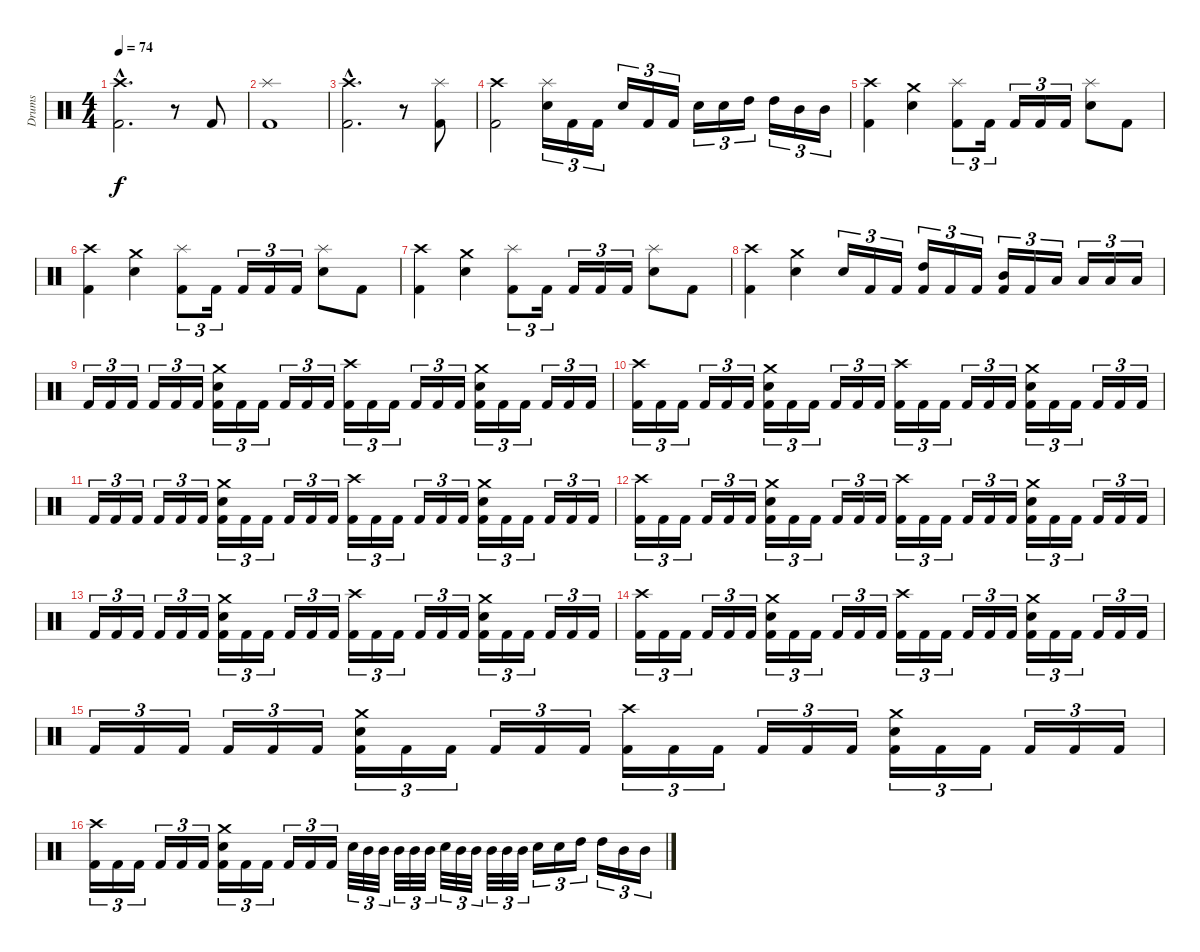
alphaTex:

\track ("Drums" "Drums") {instrument percussion}
\staff {score}
\articulation defaults
\ts (4 4)
\tempo 74
\clef neutral
\ks c
("Crash high (hit)"{hac} "Kick (hit) 2"{hac}).2{d dy f} r.8 "Kick (hit) 2".8 |
("Splash (hit)" "Kick (hit) 2").1 |
("Crash high (hit)"{hac} "Kick (hit) 2"{hac}).2{d} r.8 ("Splash (hit)" "Kick (hit) 2").8 |
("Crash high (hit)" "Kick (hit) 2").2 ("Splash (hit)" "Snare (hit) 2").16{tu (3 2)} "Kick (hit) 2".16{tu (3 2)} "Kick (hit) 2".16{tu (3 2)} "Snare (hit) 2".16{tu (3 2)} "Kick (hit) 2".16{tu (3 2)} "Kick (hit) 2".16{tu (3 2)} "Snare (hit) 2".16{tu (3 2)} "Snare (hit) 2".16{tu (3 2)} "High Tom (hit)".16{tu (3 2)} "High Tom (hit)".16{tu (3 2)} "Mid Tom (hit)".16{tu (3 2)} "Mid Tom (hit)".16{tu (3 2)} |
("Crash high (hit)" "Kick (hit) 2").4 ("Crash medium (hit)" "Snare (hit) 2").4 ("Splash (hit)" "Kick (hit) 2").8{tu (3 2)} "Kick (hit) 2".16{tu (3 2)} "Kick (hit) 2".16{tu (3 2)} "Kick (hit) 2".16{tu (3 2)} "Kick (hit) 2".16{tu (3 2)} ("Splash (hit)" "Snare (hit) 2").8 "Kick (hit) 2".8 |
("Crash high (hit)" "Kick (hit) 2").4 ("Crash medium (hit)" "Snare (hit) 2").4 ("Splash (hit)" "Kick (hit) 2").8{tu (3 2)} "Kick (hit) 2".16{tu (3 2)} "Kick (hit) 2".16{tu (3 2)} "Kick (hit) 2".16{tu (3 2)} "Kick (hit) 2".16{tu (3 2)} ("Splash (hit)" "Snare (hit) 2").8 "Kick (hit) 2".8 |
("Crash high (hit)" "Kick (hit) 2").4 ("Crash medium (hit)" "Snare (hit) 2").4 ("Splash (hit)" "Kick (hit) 2").8{tu (3 2)} "Kick (hit) 2".16{tu (3 2)} "Kick (hit) 2".16{tu (3 2)} "Kick (hit) 2".16{tu (3 2)} "Kick (hit) 2".16{tu (3 2)} ("Splash (hit)" "Snare (hit) 2").8 "Kick (hit) 2".8 |
("Crash high (hit)" "Kick (hit) 2").4 ("Crash medium (hit)" "Snare (hit) 2").4 "Snare (hit) 2".16{tu (3 2)} "Kick (hit) 2".16{tu (3 2)} "Kick (hit) 2".16{tu (3 2)} ("High Tom (hit)" "Kick (hit) 2").16{tu (3 2)} "Kick (hit) 2".16{tu (3 2)} "Kick (hit) 2".16{tu (3 2)} ("Mid Tom (hit)" "Kick (hit) 2").16{tu (3 2)} "Kick (hit) 2".16{tu (3 2)} "Low Tom (hit)".16{tu (3 2)} "Low Tom (hit)".16{tu (3 2)} "Low Tom (hit)".16{tu (3 2)} "Low Tom (hit)".16{tu (3 2)} |
"Kick (hit) 2".16{tu (3 2)} "Kick (hit) 2".16{tu (3 2)} "Kick (hit) 2".16{tu (3 2)} "Kick (hit) 2".16{tu (3 2)} "Kick (hit) 2".16{tu (3 2)} "Kick (hit) 2".16{tu (3 2)} ("Crash medium (hit)" "Snare (hit) 2" "Kick (hit) 2").16{tu (3 2)} "Kick (hit) 2".16{tu (3 2)} "Kick (hit) 2".16{tu (3 2)} "Kick (hit) 2".16{tu (3 2)} "Kick (hit) 2".16{tu (3 2)} "Kick (hit) 2".16{tu (3 2)} ("Crash high (hit)" "Kick (hit) 2").16{tu (3 2)} "Kick (hit) 2".16{tu (3 2)} "Kick (hit) 2".16{tu (3 2)} "Kick (hit) 2".16{tu (3 2)} "Kick (hit) 2".16{tu (3 2)} "Kick (hit) 2".16{tu (3 2)} ("Crash medium (hit)" "Snare (hit) 2" "Kick (hit) 2").16{tu (3 2)} "Kick (hit) 2".16{tu (3 2)} "Kick (hit) 2".16{tu (3 2)} "Kick (hit) 2".16{tu (3 2)} "Kick (hit) 2".16{tu (3 2)} "Kick (hit) 2".16{tu (3 2)} |
("Crash high (hit)" "Kick (hit) 2").16{tu (3 2)} "Kick (hit) 2".16{tu (3 2)} "Kick (hit) 2".16{tu (3 2)} "Kick (hit) 2".16{tu (3 2)} "Kick (hit) 2".16{tu (3 2)} "Kick (hit) 2".16{tu (3 2)} ("Crash medium (hit)" "Snare (hit) 2" "Kick (hit) 2").16{tu (3 2)} "Kick (hit) 2".16{tu (3 2)} "Kick (hit) 2".16{tu (3 2)} "Kick (hit) 2".16{tu (3 2)} "Kick (hit) 2".16{tu (3 2)} "Kick (hit) 2".16{tu (3 2)} ("Crash high (hit)" "Kick (hit) 2").16{tu (3 2)} "Kick (hit) 2".16{tu (3 2)} "Kick (hit) 2".16{tu (3 2)} "Kick (hit) 2".16{tu (3 2)} "Kick (hit) 2".16{tu (3 2)} "Kick (hit) 2".16{tu (3 2)} ("Crash medium (hit)" "Snare (hit) 2" "Kick (hit) 2").16{tu (3 2)} "Kick (hit) 2".16{tu (3 2)} "Kick (hit) 2".16{tu (3 2)} "Kick (hit) 2".16{tu (3 2)} "Kick (hit) 2".16{tu (3 2)} "Kick (hit) 2".16{tu (3 2)} |
"Kick (hit) 2".16{tu (3 2)} "Kick (hit) 2".16{tu (3 2)} "Kick (hit) 2".16{tu (3 2)} "Kick (hit) 2".16{tu (3 2)} "Kick (hit) 2".16{tu (3 2)} "Kick (hit) 2".16{tu (3 2)} ("Crash medium (hit)" "Snare (hit) 2" "Kick (hit) 2").16{tu (3 2)} "Kick (hit) 2".16{tu (3 2)} "Kick (hit) 2".16{tu (3 2)} "Kick (hit) 2".16{tu (3 2)} "Kick (hit) 2".16{tu (3 2)} "Kick (hit) 2".16{tu (3 2)} ("Crash high (hit)" "Kick (hit) 2").16{tu (3 2)} "Kick (hit) 2".16{tu (3 2)} "Kick (hit) 2".16{tu (3 2)} "Kick (hit) 2".16{tu (3 2)} "Kick (hit) 2".16{tu (3 2)} "Kick (hit) 2".16{tu (3 2)} ("Crash medium (hit)" "Snare (hit) 2" "Kick (hit) 2").16{tu (3 2)} "Kick (hit) 2".16{tu (3 2)} "Kick (hit) 2".16{tu (3 2)} "Kick (hit) 2".16{tu (3 2)} "Kick (hit) 2".16{tu (3 2)} "Kick (hit) 2".16{tu (3 2)} |
("Crash high (hit)" "Kick (hit) 2").16{tu (3 2)} "Kick (hit) 2".16{tu (3 2)} "Kick (hit) 2".16{tu (3 2)} "Kick (hit) 2".16{tu (3 2)} "Kick (hit) 2".16{tu (3 2)} "Kick (hit) 2".16{tu (3 2)} ("Crash medium (hit)" "Snare (hit) 2" "Kick (hit) 2").16{tu (3 2)} "Kick (hit) 2".16{tu (3 2)} "Kick (hit) 2".16{tu (3 2)} "Kick (hit) 2".16{tu (3 2)} "Kick (hit) 2".16{tu (3 2)} "Kick (hit) 2".16{tu (3 2)} ("Crash high (hit)" "Kick (hit) 2").16{tu (3 2)} "Kick (hit) 2".16{tu (3 2)} "Kick (hit) 2".16{tu (3 2)} "Kick (hit) 2".16{tu (3 2)} "Kick (hit) 2".16{tu (3 2)} "Kick (hit) 2".16{tu (3 2)} ("Crash medium (hit)" "Snare (hit) 2" "Kick (hit) 2").16{tu (3 2)} "Kick (hit) 2".16{tu (3 2)} "Kick (hit) 2".16{tu (3 2)} "Kick (hit) 2".16{tu (3 2)} "Kick (hit) 2".16{tu (3 2)} "Kick (hit) 2".16{tu (3 2)} |
"Kick (hit) 2".16{tu (3 2)} "Kick (hit) 2".16{tu (3 2)} "Kick (hit) 2".16{tu (3 2)} "Kick (hit) 2".16{tu (3 2)} "Kick (hit) 2".16{tu (3 2)} "Kick (hit) 2".16{tu (3 2)} ("Crash medium (hit)" "Snare (hit) 2" "Kick (hit) 2").16{tu (3 2)} "Kick (hit) 2".16{tu (3 2)} "Kick (hit) 2".16{tu (3 2)} "Kick (hit) 2".16{tu (3 2)} "Kick (hit) 2".16{tu (3 2)} "Kick (hit) 2".16{tu (3 2)} ("Crash high (hit)" "Kick (hit) 2").16{tu (3 2)} "Kick (hit) 2".16{tu (3 2)} "Kick (hit) 2".16{tu (3 2)} "Kick (hit) 2".16{tu (3 2)} "Kick (hit) 2".16{tu (3 2)} "Kick (hit) 2".16{tu (3 2)} ("Crash medium (hit)" "Snare (hit) 2" "Kick (hit) 2").16{tu (3 2)} "Kick (hit) 2".16{tu (3 2)} "Kick (hit) 2".16{tu (3 2)} "Kick (hit) 2".16{tu (3 2)} "Kick (hit) 2".16{tu (3 2)} "Kick (hit) 2".16{tu (3 2)} |
("Crash high (hit)" "Kick (hit) 2").16{tu (3 2)} "Kick (hit) 2".16{tu (3 2)} "Kick (hit) 2".16{tu (3 2)} "Kick (hit) 2".16{tu (3 2)} "Kick (hit) 2".16{tu (3 2)} "Kick (hit) 2".16{tu (3 2)} ("Crash medium (hit)" "Snare (hit) 2" "Kick (hit) 2").16{tu (3 2)} "Kick (hit) 2".16{tu (3 2)} "Kick (hit) 2".16{tu (3 2)} "Kick (hit) 2".16{tu (3 2)} "Kick (hit) 2".16{tu (3 2)} "Kick (hit) 2".16{tu (3 2)} ("Crash high (hit)" "Kick (hit) 2").16{tu (3 2)} "Kick (hit) 2".16{tu (3 2)} "Kick (hit) 2".16{tu (3 2)} "Kick (hit) 2".16{tu (3 2)} "Kick (hit) 2".16{tu (3 2)} "Kick (hit) 2".16{tu (3 2)} ("Crash medium (hit)" "Snare (hit) 2" "Kick (hit) 2").16{tu (3 2)} "Kick (hit) 2".16{tu (3 2)} "Kick (hit) 2".16{tu (3 2)} "Kick (hit) 2".16{tu (3 2)} "Kick (hit) 2".16{tu (3 2)} "Kick (hit) 2".16{tu (3 2)} |
"Kick (hit) 2".16{tu (3 2)} "Kick (hit) 2".16{tu (3 2)} "Kick (hit) 2".16{tu (3 2)} "Kick (hit) 2".16{tu (3 2)} "Kick (hit) 2".16{tu (3 2)} "Kick (hit) 2".16{tu (3 2)} ("Crash medium (hit)" "Snare (hit) 2" "Kick (hit) 2").16{tu (3 2)} "Kick (hit) 2".16{tu (3 2)} "Kick (hit) 2".16{tu (3 2)} "Kick (hit) 2".16{tu (3 2)} "Kick (hit) 2".16{tu (3 2)} "Kick (hit) 2".16{tu (3 2)} ("Crash high (hit)" "Kick (hit) 2").16{tu (3 2)} "Kick (hit) 2".16{tu (3 2)} "Kick (hit) 2".16{tu (3 2)} "Kick (hit) 2".16{tu (3 2)} "Kick (hit) 2".16{tu (3 2)} "Kick (hit) 2".16{tu (3 2)} ("Crash medium (hit)" "Snare (hit) 2" "Kick (hit) 2").16{tu (3 2)} "Kick (hit) 2".16{tu (3 2)} "Kick (hit) 2".16{tu (3 2)} "Kick (hit) 2".16{tu (3 2)} "Kick (hit) 2".16{tu (3 2)} "Kick (hit) 2".16{tu (3 2)} |
("Crash high (hit)" "Kick (hit) 2").16{tu (3 2)} "Kick (hit) 2".16{tu (3 2)} "Kick (hit) 2".16{tu (3 2)} "Kick (hit) 2".16{tu (3 2)} "Kick (hit) 2".16{tu (3 2)} "Kick (hit) 2".16{tu (3 2)} ("Crash medium (hit)" "Snare (hit) 2" "Kick (hit) 2").16{tu (3 2)} "Kick (hit) 2".16{tu (3 2)} "Kick (hit) 2".16{tu (3 2)} "Kick (hit) 2".16{tu (3 2)} "Kick (hit) 2".16{tu (3 2)} "Kick (hit) 2".16{tu (3 2)} "Snare (hit) 2".32{tu (3 2)} "Mid Tom (hit)".32{tu (3 2)} "Mid Tom (hit)".32{tu (3 2)} "Mid Tom (hit)".32{tu (3 2)} "Mid Tom (hit)".32{tu (3 2)} "Mid Tom (hit)".32{tu (3 2)} "Snare (hit) 2".32{tu (3 2)} "Mid Tom (hit)".32{tu (3 2)} "Mid Tom (hit)".32{tu (3 2)} "Mid Tom (hit)".32{tu (3 2)} "Mid Tom (hit)".32{tu (3 2)} "Mid Tom (hit)".32{tu (3 2)} "Snare (hit) 2".16{tu (3 2)} "Snare (hit) 2".16{tu (3 2)} "High Tom (hit)".16{tu (3 2)} "High Tom (hit)".16{tu (3 2)} "Mid Tom (hit)".16{tu (3 2)} "Mid Tom (hit)".16{tu (3 2)}
